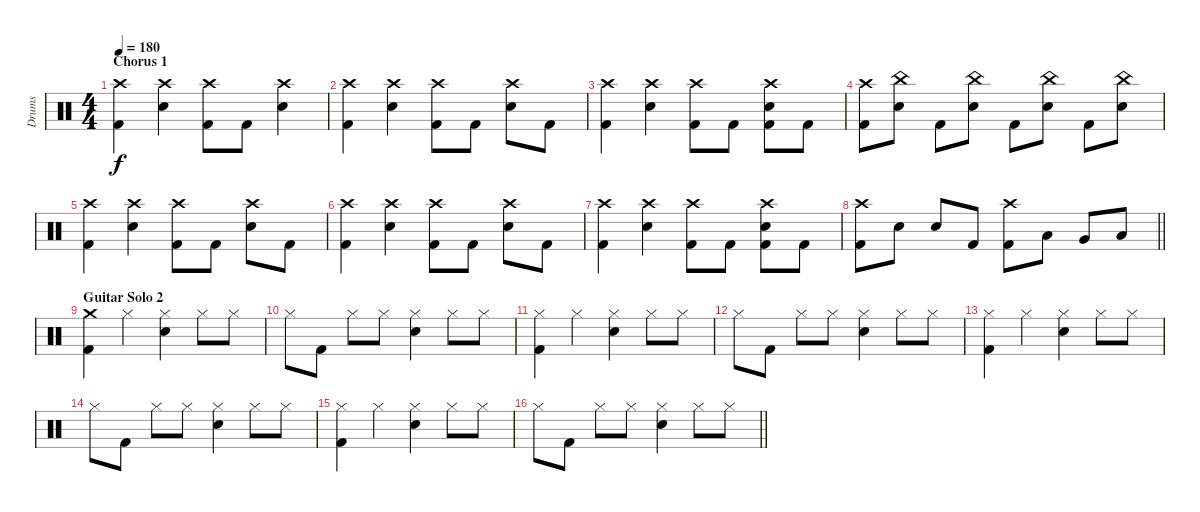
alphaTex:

\track ("Drums" "Drums") {instrument percussion}
\staff {score}
\articulation defaults
\ts (4 4)
\section ("" "Chorus 1")
\tempo 180
\clef neutral
\ks c
("Crash high (hit)" "Kick (hit) 2").4{dy f} ("Crash high (hit)" "Electric Snare (hit)").4 ("Crash high (hit)" "Kick (hit) 2").8 "Kick (hit) 2".8 ("Crash high (hit)" "Electric Snare (hit)").4 |
("Crash high (hit)" "Kick (hit) 2").4 ("Crash high (hit)" "Electric Snare (hit)").4 ("Crash high (hit)" "Kick (hit) 2").8 "Kick (hit) 2".8 ("Crash high (hit)" "Electric Snare (hit)").8 "Kick (hit) 2".8 |
("Crash high (hit)" "Kick (hit) 2").4 ("Crash high (hit)" "Electric Snare (hit)").4 ("Crash high (hit)" "Kick (hit) 2").8 "Kick (hit) 2".8 ("Crash high (hit)" "Electric Snare (hit)" "Kick (hit) 2").8 "Kick (hit) 2".8 |
("Crash high (hit)" "Kick (hit) 2").8 ("China (hit)" "Electric Snare (hit)").8 "Kick (hit) 2".8 ("China (hit)" "Electric Snare (hit)").8 "Kick (hit) 2".8 ("China (hit)" "Electric Snare (hit)").8 "Kick (hit) 2".8 ("China (hit)" "Electric Snare (hit)").8 |
("Crash high (hit)" "Kick (hit) 2").4 ("Crash high (hit)" "Electric Snare (hit)").4 ("Crash high (hit)" "Kick (hit) 2").8 "Kick (hit) 2".8 ("Crash high (hit)" "Electric Snare (hit)").8 "Kick (hit) 2".8 |
("Crash high (hit)" "Kick (hit) 2").4 ("Crash high (hit)" "Electric Snare (hit)").4 ("Crash high (hit)" "Kick (hit) 2").8 "Kick (hit) 2".8 ("Crash high (hit)" "Electric Snare (hit)").8 "Kick (hit) 2".8 |
("Crash high (hit)" "Kick (hit) 2").4 ("Crash high (hit)" "Electric Snare (hit)").4 ("Crash high (hit)" "Kick (hit) 2").8 "Kick (hit) 2".8 ("Crash high (hit)" "Electric Snare (hit)" "Kick (hit) 2").8 "Kick (hit) 2".8 |
\barLineRight lightlight
("Crash high (hit)" "Kick (hit) 2").8 "Electric Snare (hit)".8 "Electric Snare (hit)".8 "Kick (hit) 2".8 ("Crash high (hit)" "Kick (hit) 2").8 "Low Tom (hit)".8 "Very Low Tom (hit)".8 "Low Floor Tom (hit)".8 |
\section ("" "Guitar Solo 2")
("Crash medium (hit)" "Kick (hit) 2").4 "Hi-Hat (closed)".4 ("Hi-Hat (closed)" "Electric Snare (hit)").4 "Hi-Hat (closed)".8 "Hi-Hat (closed)".8 |
"Hi-Hat (closed)".8 "Kick (hit) 2".8 "Hi-Hat (closed)".8 "Hi-Hat (closed)".8 ("Hi-Hat (closed)" "Electric Snare (hit)").4 "Hi-Hat (closed)".8 "Hi-Hat (closed)".8 |
("Hi-Hat (closed)" "Kick (hit) 2").4 "Hi-Hat (closed)".4 ("Hi-Hat (closed)" "Electric Snare (hit)").4 "Hi-Hat (closed)".8 "Hi-Hat (closed)".8 |
"Hi-Hat (closed)".8 "Kick (hit) 2".8 "Hi-Hat (closed)".8 "Hi-Hat (closed)".8 ("Hi-Hat (closed)" "Electric Snare (hit)").4 "Hi-Hat (closed)".8 "Hi-Hat (closed)".8 |
("Hi-Hat (closed)" "Kick (hit) 2").4 "Hi-Hat (closed)".4 ("Hi-Hat (closed)" "Electric Snare (hit)").4 "Hi-Hat (closed)".8 "Hi-Hat (closed)".8 |
"Hi-Hat (closed)".8 "Kick (hit) 2".8 "Hi-Hat (closed)".8 "Hi-Hat (closed)".8 ("Hi-Hat (closed)" "Electric Snare (hit)").4 "Hi-Hat (closed)".8 "Hi-Hat (closed)".8 |
("Hi-Hat (closed)" "Kick (hit) 2").4 "Hi-Hat (closed)".4 ("Hi-Hat (closed)" "Electric Snare (hit)").4 "Hi-Hat (closed)".8 "Hi-Hat (closed)".8 |
\barLineRight lightlight "Hi-Hat (closed)".8 "Kick (hit) 2".8 "Hi-Hat (closed)".8 "Hi-Hat (closed)".8
("Hi-Hat (closed)" "Electric Snare (hit)").4 "Hi-Hat (closed)".8 "Hi-Hat (closed)".8
